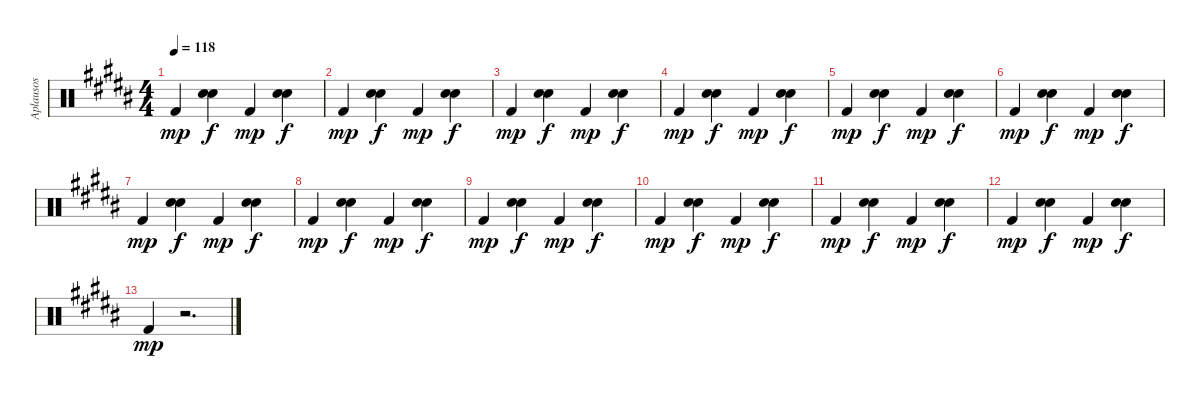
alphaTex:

\track ("Aplausos" "Aplausos") {instrument percussion}
\staff {score}
\articulation defaults
\ts (4 4)
\tempo 118
\clef neutral
\ks b "Kick (hit) 2".4{dy mp}
("Hand Clap (hit)" "Hand Clap (hit)").4{dy f} "Kick (hit) 2".4{dy mp} ("Hand Clap (hit)" "Hand Clap (hit)").4{dy f} |
"Kick (hit) 2".4{dy mp} ("Hand Clap (hit)" "Hand Clap (hit)").4{dy f} "Kick (hit) 2".4{dy mp} ("Hand Clap (hit)" "Hand Clap (hit)").4{dy f} |
"Kick (hit) 2".4{dy mp} ("Hand Clap (hit)" "Hand Clap (hit)").4{dy f} "Kick (hit) 2".4{dy mp} ("Hand Clap (hit)" "Hand Clap (hit)").4{dy f} |
"Kick (hit) 2".4{dy mp} ("Hand Clap (hit)" "Hand Clap (hit)").4{dy f} "Kick (hit) 2".4{dy mp} ("Hand Clap (hit)" "Hand Clap (hit)").4{dy f} |
"Kick (hit) 2".4{dy mp} ("Hand Clap (hit)" "Hand Clap (hit)").4{dy f} "Kick (hit) 2".4{dy mp} ("Hand Clap (hit)" "Hand Clap (hit)").4{dy f} |
"Kick (hit) 2".4{dy mp} ("Hand Clap (hit)" "Hand Clap (hit)").4{dy f} "Kick (hit) 2".4{dy mp} ("Hand Clap (hit)" "Hand Clap (hit)").4{dy f} |
"Kick (hit) 2".4{dy mp} ("Hand Clap (hit)" "Hand Clap (hit)").4{dy f} "Kick (hit) 2".4{dy mp} ("Hand Clap (hit)" "Hand Clap (hit)").4{dy f} |
"Kick (hit) 2".4{dy mp} ("Hand Clap (hit)" "Hand Clap (hit)").4{dy f} "Kick (hit) 2".4{dy mp} ("Hand Clap (hit)" "Hand Clap (hit)").4{dy f} |
"Kick (hit) 2".4{dy mp} ("Hand Clap (hit)" "Hand Clap (hit)").4{dy f} "Kick (hit) 2".4{dy mp} ("Hand Clap (hit)" "Hand Clap (hit)").4{dy f} |
"Kick (hit) 2".4{dy mp} ("Hand Clap (hit)" "Hand Clap (hit)").4{dy f} "Kick (hit) 2".4{dy mp} ("Hand Clap (hit)" "Hand Clap (hit)").4{dy f} |
"Kick (hit) 2".4{dy mp} ("Hand Clap (hit)" "Hand Clap (hit)").4{dy f} "Kick (hit) 2".4{dy mp} ("Hand Clap (hit)" "Hand Clap (hit)").4{dy f} |
"Kick (hit) 2".4{dy mp} ("Hand Clap (hit)" "Hand Clap (hit)").4{dy f} "Kick (hit) 2".4{dy mp} ("Hand Clap (hit)" "Hand Clap (hit)").4{dy f} |
"Kick (hit) 2".4{dy mp} r.2{d}
